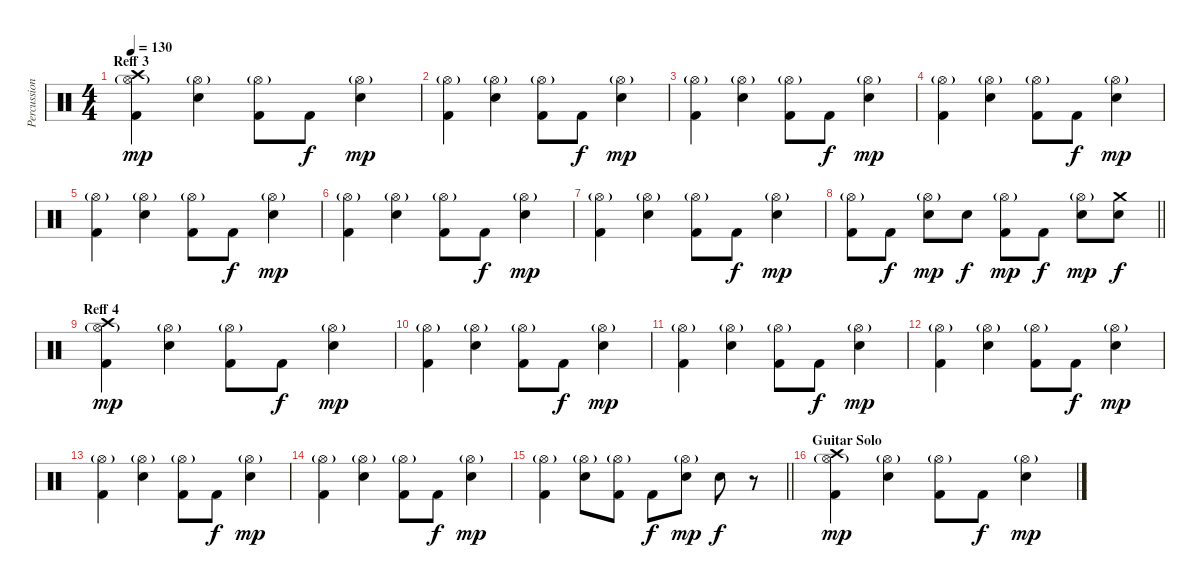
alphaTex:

\track ("Percussion 1" "Percussion") {instrument percussion}
\staff {score}
\articulation defaults
\ts (4 4)
\section ("" "Reff 3")
\tempo 130
\clef neutral
\ks c
("Hi-Hat (open)"{g} "Crash high (hit)" "Kick (hit) 2").4{dy mp} ("Hi-Hat (open)"{g} "Electric Snare (hit)").4 ("Hi-Hat (open)"{g} "Kick (hit) 2").8 "Kick (hit) 2".8{dy f} ("Hi-Hat (open)"{g} "Electric Snare (hit)").4{dy mp} |
("Hi-Hat (open)"{g} "Kick (hit) 2").4 ("Hi-Hat (open)"{g} "Electric Snare (hit)").4 ("Hi-Hat (open)"{g} "Kick (hit) 2").8 "Kick (hit) 2".8{dy f} ("Hi-Hat (open)"{g} "Electric Snare (hit)").4{dy mp} |
("Hi-Hat (open)"{g} "Kick (hit) 2").4 ("Hi-Hat (open)"{g} "Electric Snare (hit)").4 ("Hi-Hat (open)"{g} "Kick (hit) 2").8 "Kick (hit) 2".8{dy f} ("Hi-Hat (open)"{g} "Electric Snare (hit)").4{dy mp} |
("Hi-Hat (open)"{g} "Kick (hit) 2").4 ("Hi-Hat (open)"{g} "Electric Snare (hit)").4 ("Hi-Hat (open)"{g} "Kick (hit) 2").8 "Kick (hit) 2".8{dy f} ("Hi-Hat (open)"{g} "Electric Snare (hit)").4{dy mp} |
("Hi-Hat (open)"{g} "Kick (hit) 2").4 ("Hi-Hat (open)"{g} "Electric Snare (hit)").4 ("Hi-Hat (open)"{g} "Kick (hit) 2").8 "Kick (hit) 2".8{dy f} ("Hi-Hat (open)"{g} "Electric Snare (hit)").4{dy mp} |
("Hi-Hat (open)"{g} "Kick (hit) 2").4 ("Hi-Hat (open)"{g} "Electric Snare (hit)").4 ("Hi-Hat (open)"{g} "Kick (hit) 2").8 "Kick (hit) 2".8{dy f} ("Hi-Hat (open)"{g} "Electric Snare (hit)").4{dy mp} |
("Hi-Hat (open)"{g} "Kick (hit) 2").4 ("Hi-Hat (open)"{g} "Electric Snare (hit)").4 ("Hi-Hat (open)"{g} "Kick (hit) 2").8 "Kick (hit) 2".8{dy f} ("Hi-Hat (open)"{g} "Electric Snare (hit)").4{dy mp} |
\barLineRight lightlight
("Hi-Hat (open)"{g} "Kick (hit) 2").8 "Kick (hit) 2".8{dy f} ("Hi-Hat (open)"{g} "Electric Snare (hit)").8{dy mp} "Electric Snare (hit)".8{dy f} ("Hi-Hat (open)"{g} "Kick (hit) 2").8{dy mp} "Kick (hit) 2".8{dy f} ("Hi-Hat (open)"{g} "Electric Snare (hit)").8{dy mp} ("Electric Snare (hit)" "Crash medium (hit)").8{dy f} |
\section ("" "Reff 4")
("Hi-Hat (open)"{g} "Crash high (hit)" "Kick (hit) 2").4{dy mp} ("Hi-Hat (open)"{g} "Electric Snare (hit)").4 ("Hi-Hat (open)"{g} "Kick (hit) 2").8 "Kick (hit) 2".8{dy f} ("Hi-Hat (open)"{g} "Electric Snare (hit)").4{dy mp} |
("Hi-Hat (open)"{g} "Kick (hit) 2").4 ("Hi-Hat (open)"{g} "Electric Snare (hit)").4 ("Hi-Hat (open)"{g} "Kick (hit) 2").8 "Kick (hit) 2".8{dy f} ("Hi-Hat (open)"{g} "Electric Snare (hit)").4{dy mp} |
("Hi-Hat (open)"{g} "Kick (hit) 2").4 ("Hi-Hat (open)"{g} "Electric Snare (hit)").4 ("Hi-Hat (open)"{g} "Kick (hit) 2").8 "Kick (hit) 2".8{dy f} ("Hi-Hat (open)"{g} "Electric Snare (hit)").4{dy mp} |
("Hi-Hat (open)"{g} "Kick (hit) 2").4 ("Hi-Hat (open)"{g} "Electric Snare (hit)").4 ("Hi-Hat (open)"{g} "Kick (hit) 2").8 "Kick (hit) 2".8{dy f} ("Hi-Hat (open)"{g} "Electric Snare (hit)").4{dy mp} |
("Hi-Hat (open)"{g} "Kick (hit) 2").4 ("Hi-Hat (open)"{g} "Electric Snare (hit)").4 ("Hi-Hat (open)"{g} "Kick (hit) 2").8 "Kick (hit) 2".8{dy f} ("Hi-Hat (open)"{g} "Electric Snare (hit)").4{dy mp} |
("Hi-Hat (open)"{g} "Kick (hit) 2").4 ("Hi-Hat (open)"{g} "Electric Snare (hit)").4 ("Hi-Hat (open)"{g} "Kick (hit) 2").8 "Kick (hit) 2".8{dy f} ("Hi-Hat (open)"{g} "Electric Snare (hit)").4{dy mp} |
\barLineRight lightlight
("Hi-Hat (open)"{g} "Kick (hit) 2").4 ("Hi-Hat (open)"{g} "Electric Snare (hit)").8 ("Hi-Hat (open)"{g} "Kick (hit) 2").8 "Kick (hit) 2".8{dy f} ("Hi-Hat (open)"{g} "Electric Snare (hit)").8{dy mp} "Electric Snare (hit)".8{dy f} r.8 |
\section ("" "Guitar Solo")
("Hi-Hat (open)"{g} "Crash high (hit)" "Kick (hit) 2").4{dy mp} ("Hi-Hat (open)"{g} "Electric Snare (hit)").4 ("Hi-Hat (open)"{g} "Kick (hit) 2").8 "Kick (hit) 2".8{dy f} ("Hi-Hat (open)"{g} "Electric Snare (hit)").4{dy mp}
